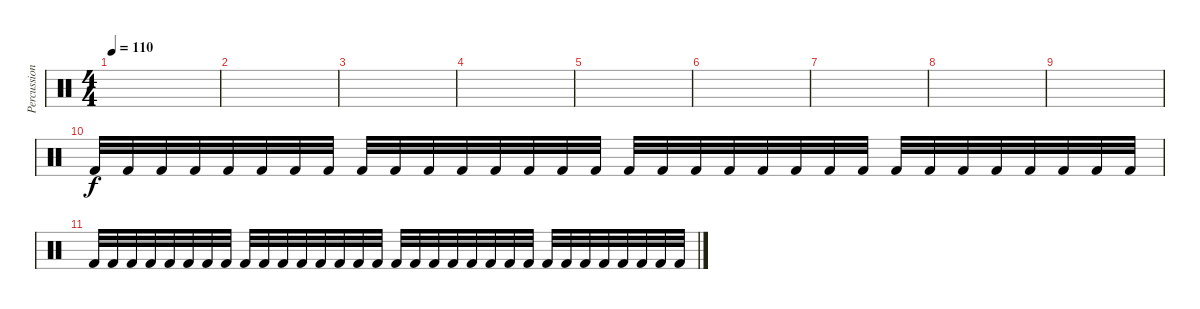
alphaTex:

\track ("Percussion" "Percussion") {solo instrument percussion}
\staff {score}
\articulation defaults
\ts (4 4)
\tempo 110
\clef neutral
\ks c
|
|
|
|
|
|
|
|
|
"Kick (hit) 2".32 "Kick (hit) 2".32 "Kick (hit) 2".32 "Kick (hit) 2".32 "Kick (hit) 2".32 "Kick (hit) 2".32 "Kick (hit) 2".32 "Kick (hit) 2".32 "Kick (hit) 2".32 "Kick (hit) 2".32 "Kick (hit) 2".32 "Kick (hit) 2".32 "Kick (hit) 2".32 "Kick (hit) 2".32 "Kick (hit) 2".32 "Kick (hit) 2".32 "Kick (hit) 2".32 "Kick (hit) 2".32 "Kick (hit) 2".32 "Kick (hit) 2".32 "Kick (hit) 2".32 "Kick (hit) 2".32 "Kick (hit) 2".32 "Kick (hit) 2".32 "Kick (hit) 2".32 "Kick (hit) 2".32 "Kick (hit) 2".32 "Kick (hit) 2".32 "Kick (hit) 2".32 "Kick (hit) 2".32 "Kick (hit) 2".32 "Kick (hit) 2".32 |
"Kick (hit) 2".32 "Kick (hit) 2".32 "Kick (hit) 2".32 "Kick (hit) 2".32 "Kick (hit) 2".32 "Kick (hit) 2".32 "Kick (hit) 2".32 "Kick (hit) 2".32 "Kick (hit) 2".32 "Kick (hit) 2".32 "Kick (hit) 2".32 "Kick (hit) 2".32 "Kick (hit) 2".32 "Kick (hit) 2".32 "Kick (hit) 2".32 "Kick (hit) 2".32 "Kick (hit) 2".32 "Kick (hit) 2".32 "Kick (hit) 2".32 "Kick (hit) 2".32 "Kick (hit) 2".32 "Kick (hit) 2".32 "Kick (hit) 2".32 "Kick (hit) 2".32 "Kick (hit) 2".32 "Kick (hit) 2".32 "Kick (hit) 2".32 "Kick (hit) 2".32 "Kick (hit) 2".32 "Kick (hit) 2".32 "Kick (hit) 2".32 "Kick (hit) 2".32
